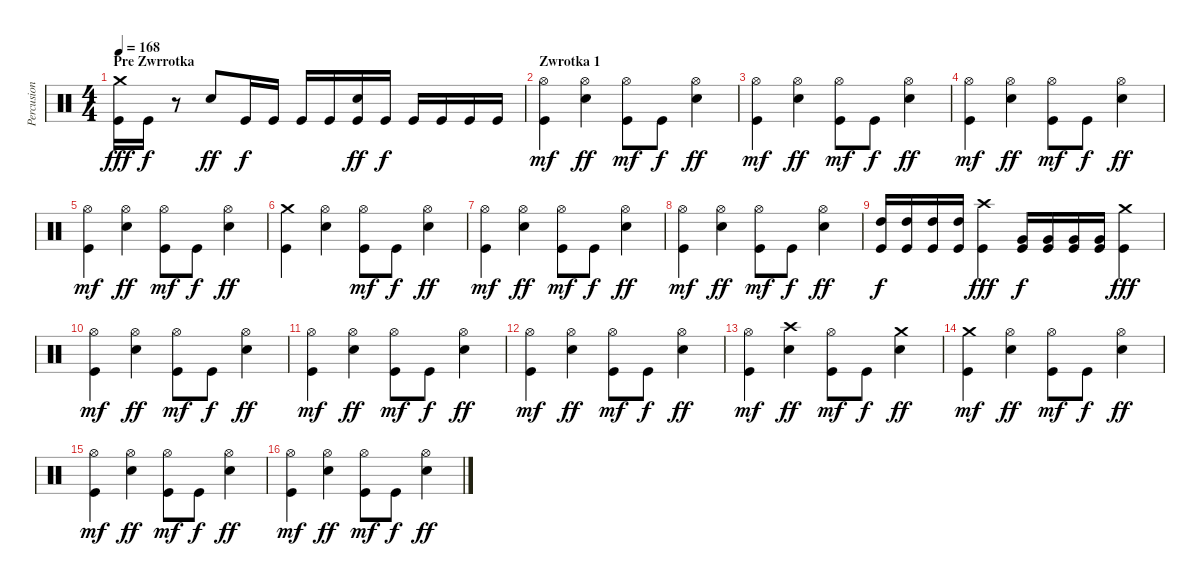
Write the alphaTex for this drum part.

\track ("Percusion" "Percusion") {instrument percussion}
\staff {score}
\articulation defaults
\ts (4 4)
\section ("" "Pre Zwrrotka")
\tempo 168
\clef neutral
\ks c
("Crash medium (hit)" "Kick (hit)").16{dy fff} "Kick (hit)".16{dy f} r.8 "Snare (hit) 2".8{dy ff} "Kick (hit)".16{dy f} "Kick (hit)".16 "Kick (hit)".16 "Kick (hit)".16 ("Snare (hit) 2" "Kick (hit)").16{dy ff} "Kick (hit)".16{dy f} "Kick (hit)".16 "Kick (hit)".16 "Kick (hit)".16 "Kick (hit)".16 |
\section ("" "Zwrotka 1")
("Hi-Hat (open)" "Kick (hit)").4{dy mf} ("Hi-Hat (open)" "Snare (hit) 2").4{dy ff} ("Hi-Hat (open)" "Kick (hit)").8{dy mf} "Kick (hit)".8{dy f} ("Hi-Hat (open)" "Snare (hit) 2").4{dy ff} |
("Hi-Hat (open)" "Kick (hit)").4{dy mf} ("Hi-Hat (open)" "Snare (hit) 2").4{dy ff} ("Hi-Hat (open)" "Kick (hit)").8{dy mf} "Kick (hit)".8{dy f} ("Hi-Hat (open)" "Snare (hit) 2").4{dy ff} |
("Hi-Hat (open)" "Kick (hit)").4{dy mf} ("Hi-Hat (open)" "Snare (hit) 2").4{dy ff} ("Hi-Hat (open)" "Kick (hit)").8{dy mf} "Kick (hit)".8{dy f} ("Hi-Hat (open)" "Snare (hit) 2").4{dy ff} |
("Hi-Hat (open)" "Kick (hit)").4{dy mf} ("Hi-Hat (open)" "Snare (hit) 2").4{dy ff} ("Hi-Hat (open)" "Kick (hit)").8{dy mf} "Kick (hit)".8{dy f} ("Hi-Hat (open)" "Snare (hit) 2").4{dy ff} |
("Crash medium (hit)" "Kick (hit)").4 ("Hi-Hat (open)" "Snare (hit) 2").4 ("Hi-Hat (open)" "Kick (hit)").8{dy mf} "Kick (hit)".8{dy f} ("Hi-Hat (open)" "Snare (hit) 2").4{dy ff} |
("Hi-Hat (open)" "Kick (hit)").4{dy mf} ("Hi-Hat (open)" "Snare (hit) 2").4{dy ff} ("Hi-Hat (open)" "Kick (hit)").8{dy mf} "Kick (hit)".8{dy f} ("Hi-Hat (open)" "Snare (hit) 2").4{dy ff} |
("Hi-Hat (open)" "Kick (hit)").4{dy mf} ("Hi-Hat (open)" "Snare (hit) 2").4{dy ff} ("Hi-Hat (open)" "Kick (hit)").8{dy mf} "Kick (hit)".8{dy f} ("Hi-Hat (open)" "Snare (hit) 2").4{dy ff} |
("High Tom (hit)" "Kick (hit)").16{dy f} ("High Tom (hit)" "Kick (hit)").16 ("High Tom (hit)" "Kick (hit)").16 ("High Tom (hit)" "Kick (hit)").16 ("Crash high (hit)" "Kick (hit)").4{dy fff} ("Very Low Tom (hit)" "Kick (hit)").16{dy f} ("Very Low Tom (hit)" "Kick (hit)").16 ("Very Low Tom (hit)" "Kick (hit)").16 ("Very Low Tom (hit)" "Kick (hit)").16 ("Crash medium (hit)" "Kick (hit)").4{dy fff} |
("Hi-Hat (open)" "Kick (hit)").4{dy mf} ("Hi-Hat (open)" "Snare (hit) 2").4{dy ff} ("Hi-Hat (open)" "Kick (hit)").8{dy mf} "Kick (hit)".8{dy f} ("Hi-Hat (open)" "Snare (hit) 2").4{dy ff} |
("Hi-Hat (open)" "Kick (hit)").4{dy mf} ("Hi-Hat (open)" "Snare (hit) 2").4{dy ff} ("Hi-Hat (open)" "Kick (hit)").8{dy mf} "Kick (hit)".8{dy f} ("Hi-Hat (open)" "Snare (hit) 2").4{dy ff} |
("Hi-Hat (open)" "Kick (hit)").4{dy mf} ("Hi-Hat (open)" "Snare (hit) 2").4{dy ff} ("Hi-Hat (open)" "Kick (hit)").8{dy mf} "Kick (hit)".8{dy f} ("Hi-Hat (open)" "Snare (hit) 2").4{dy ff} |
("Hi-Hat (open)" "Kick (hit)").4{dy mf} ("Crash high (hit)" "Snare (hit) 2").4{dy ff} ("Hi-Hat (open)" "Kick (hit)").8{dy mf} "Kick (hit)".8{dy f} ("Crash medium (hit)" "Snare (hit) 2").4{dy ff} |
("Crash medium (hit)" "Kick (hit)").4{dy mf} ("Hi-Hat (open)" "Snare (hit) 2").4{dy ff} ("Hi-Hat (open)" "Kick (hit)").8{dy mf} "Kick (hit)".8{dy f} ("Hi-Hat (open)" "Snare (hit) 2").4{dy ff} |
("Hi-Hat (open)" "Kick (hit)").4{dy mf} ("Hi-Hat (open)" "Snare (hit) 2").4{dy ff} ("Hi-Hat (open)" "Kick (hit)").8{dy mf} "Kick (hit)".8{dy f} ("Hi-Hat (open)" "Snare (hit) 2").4{dy ff} |
("Hi-Hat (open)" "Kick (hit)").4{dy mf} ("Hi-Hat (open)" "Snare (hit) 2").4{dy ff} ("Hi-Hat (open)" "Kick (hit)").8{dy mf} "Kick (hit)".8{dy f} ("Hi-Hat (open)" "Snare (hit) 2").4{dy ff}
